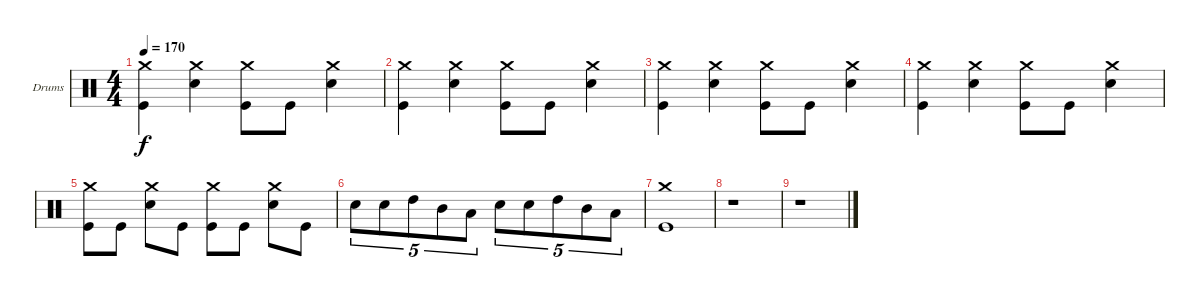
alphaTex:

\defaultSystemsLayout 4
\bracketExtendMode groupsimilarinstruments
\firstSystemTrackNameOrientation horizontal
\otherSystemsTrackNameOrientation horizontal
\track ("Drumkit" "Drums") {instrument percussion}
\staff {score}
\articulation defaults
\ts (4 4)
\tempo 170
\clef neutral
\ks c
("Crash medium (hit)" "Kick (hit)").4{dy f} ("Crash medium (hit)" "Snare (hit) 2").4 ("Crash medium (hit)" "Kick (hit)").8 "Kick (hit)".8 ("Crash medium (hit)" "Snare (hit) 2").4 |
("Crash medium (hit)" "Kick (hit)").4 ("Crash medium (hit)" "Snare (hit) 2").4 ("Crash medium (hit)" "Kick (hit)").8 "Kick (hit)".8 ("Crash medium (hit)" "Snare (hit) 2").4 |
("Crash medium (hit)" "Kick (hit)").4 ("Crash medium (hit)" "Snare (hit) 2").4 ("Crash medium (hit)" "Kick (hit)").8 "Kick (hit)".8 ("Crash medium (hit)" "Snare (hit) 2").4 |
("Crash medium (hit)" "Kick (hit)").4 ("Crash medium (hit)" "Snare (hit) 2").4 ("Crash medium (hit)" "Kick (hit)").8 "Kick (hit)".8 ("Crash medium (hit)" "Snare (hit) 2").4 |
("Crash medium (hit)" "Kick (hit)").8 "Kick (hit)".8 ("Crash medium (hit)" "Snare (hit) 2").8 "Kick (hit)".8 ("Crash medium (hit)" "Kick (hit)").8 "Kick (hit)".8 ("Crash medium (hit)" "Snare (hit) 2").8 "Kick (hit)".8 |
"Snare (hit) 2".8{tu (5 4)} "Snare (hit) 2".8{tu (5 4)} "High Tom (hit)".8{tu (5 4)} "Mid Tom (hit)".8{tu (5 4)} "Low Tom (hit)".8{tu (5 4)} "Snare (hit) 2".8{tu (5 4)} "Snare (hit) 2".8{tu (5 4)} "High Tom (hit)".8{tu (5 4)} "Mid Tom (hit)".8{tu (5 4)} "Low Tom (hit)".8{tu (5 4)} |
("Crash medium (hit)" "Kick (hit)").1 |
r.1 |
r.1
